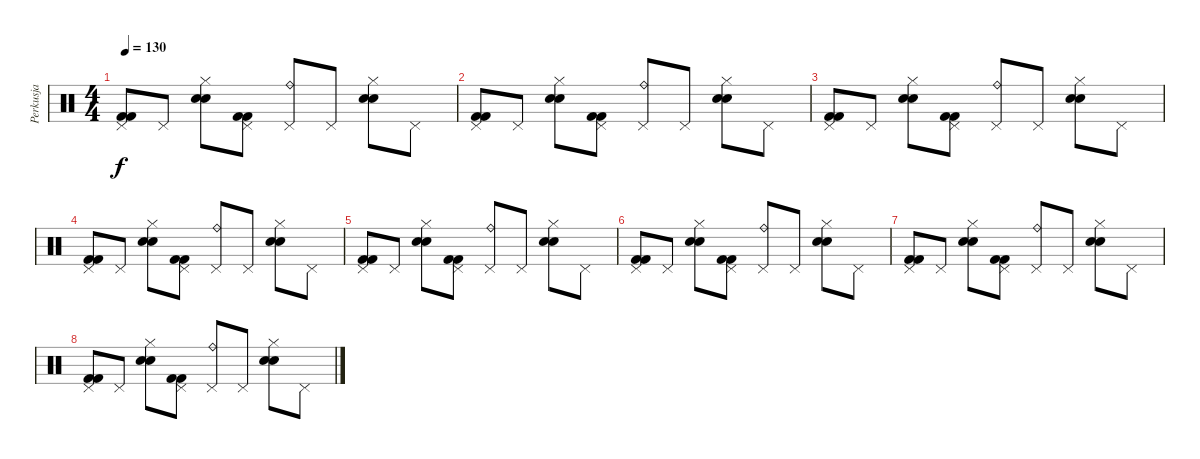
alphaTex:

\track ("Perkusja" "Perkusja") {instrument percussion}
\staff {score}
\articulation defaults
\ts (4 4)
\tempo 130
\clef neutral
\ks c
("Pedal Hi-Hat (hit)" "Kick (hit) 2" "Kick (hit) 2").8{dy f} "Pedal Hi-Hat (hit)".8 ("Hi-Hat (closed)" "Electric Snare (hit)" "Electric Snare (hit)").8 ("Pedal Hi-Hat (hit)" "Kick (hit) 2" "Kick (hit) 2").8 ("Ride (bell)" "Pedal Hi-Hat (hit)").8 "Pedal Hi-Hat (hit)".8 ("Hi-Hat (closed)" "Electric Snare (hit)" "Electric Snare (hit)").8 "Pedal Hi-Hat (hit)".8 |
("Pedal Hi-Hat (hit)" "Kick (hit) 2" "Kick (hit) 2").8 "Pedal Hi-Hat (hit)".8 ("Hi-Hat (closed)" "Electric Snare (hit)" "Electric Snare (hit)").8 ("Pedal Hi-Hat (hit)" "Kick (hit) 2" "Kick (hit) 2").8 ("Ride (bell)" "Pedal Hi-Hat (hit)").8 "Pedal Hi-Hat (hit)".8 ("Hi-Hat (closed)" "Electric Snare (hit)" "Electric Snare (hit)").8 "Pedal Hi-Hat (hit)".8 |
("Pedal Hi-Hat (hit)" "Kick (hit) 2" "Kick (hit) 2").8 "Pedal Hi-Hat (hit)".8 ("Hi-Hat (closed)" "Electric Snare (hit)" "Electric Snare (hit)").8 ("Pedal Hi-Hat (hit)" "Kick (hit) 2" "Kick (hit) 2").8 ("Ride (bell)" "Pedal Hi-Hat (hit)").8 "Pedal Hi-Hat (hit)".8 ("Hi-Hat (closed)" "Electric Snare (hit)" "Electric Snare (hit)").8 "Pedal Hi-Hat (hit)".8 |
("Pedal Hi-Hat (hit)" "Kick (hit) 2" "Kick (hit) 2").8 "Pedal Hi-Hat (hit)".8 ("Hi-Hat (closed)" "Electric Snare (hit)" "Electric Snare (hit)").8 ("Pedal Hi-Hat (hit)" "Kick (hit) 2" "Kick (hit) 2").8 ("Ride (bell)" "Pedal Hi-Hat (hit)").8 "Pedal Hi-Hat (hit)".8 ("Hi-Hat (closed)" "Electric Snare (hit)" "Electric Snare (hit)").8 "Pedal Hi-Hat (hit)".8 |
("Pedal Hi-Hat (hit)" "Kick (hit) 2" "Kick (hit) 2").8 "Pedal Hi-Hat (hit)".8 ("Hi-Hat (closed)" "Electric Snare (hit)" "Electric Snare (hit)").8 ("Pedal Hi-Hat (hit)" "Kick (hit) 2" "Kick (hit) 2").8 ("Ride (bell)" "Pedal Hi-Hat (hit)").8 "Pedal Hi-Hat (hit)".8 ("Hi-Hat (closed)" "Electric Snare (hit)" "Electric Snare (hit)").8 "Pedal Hi-Hat (hit)".8 |
("Pedal Hi-Hat (hit)" "Kick (hit) 2" "Kick (hit) 2").8 "Pedal Hi-Hat (hit)".8 ("Hi-Hat (closed)" "Electric Snare (hit)" "Electric Snare (hit)").8 ("Pedal Hi-Hat (hit)" "Kick (hit) 2" "Kick (hit) 2").8 ("Ride (bell)" "Pedal Hi-Hat (hit)").8 "Pedal Hi-Hat (hit)".8 ("Hi-Hat (closed)" "Electric Snare (hit)" "Electric Snare (hit)").8 "Pedal Hi-Hat (hit)".8 |
("Pedal Hi-Hat (hit)" "Kick (hit) 2" "Kick (hit) 2").8 "Pedal Hi-Hat (hit)".8 ("Hi-Hat (closed)" "Electric Snare (hit)" "Electric Snare (hit)").8 ("Pedal Hi-Hat (hit)" "Kick (hit) 2" "Kick (hit) 2").8 ("Ride (bell)" "Pedal Hi-Hat (hit)").8 "Pedal Hi-Hat (hit)".8 ("Hi-Hat (closed)" "Electric Snare (hit)" "Electric Snare (hit)").8 "Pedal Hi-Hat (hit)".8 |
("Pedal Hi-Hat (hit)" "Kick (hit) 2" "Kick (hit) 2").8 "Pedal Hi-Hat (hit)".8 ("Hi-Hat (closed)" "Electric Snare (hit)" "Electric Snare (hit)").8 ("Pedal Hi-Hat (hit)" "Kick (hit) 2" "Kick (hit) 2").8 ("Ride (bell)" "Pedal Hi-Hat (hit)").8 "Pedal Hi-Hat (hit)".8 ("Hi-Hat (closed)" "Electric Snare (hit)" "Electric Snare (hit)").8 "Pedal Hi-Hat (hit)".8
